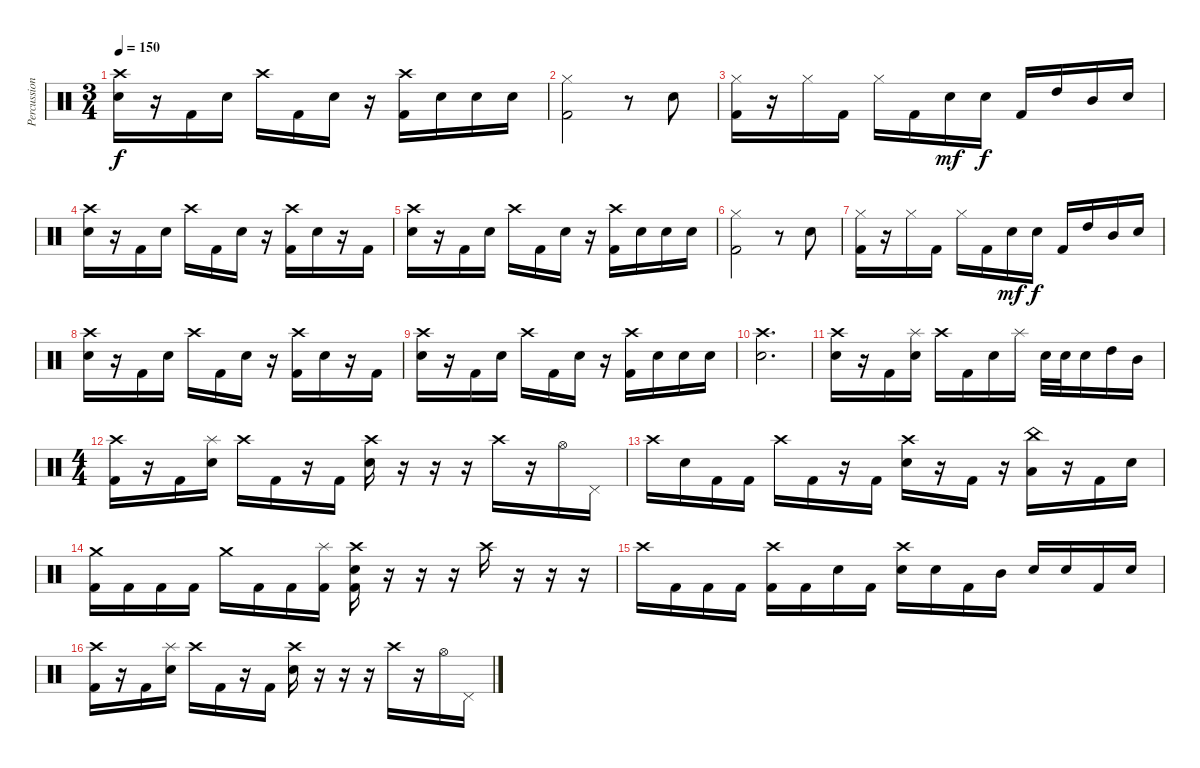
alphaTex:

\track ("Percussion" "Percussion") {instrument percussion}
\staff {score}
\articulation defaults
\ts (3 4)
\tempo 150
\clef neutral
\ks c
("Crash high (hit)" "Electric Snare (hit)").16{dy f} r.16 "Kick (hit) 2".16 "Electric Snare (hit)".16 "Crash high (hit)".16 "Kick (hit) 2".16 "Electric Snare (hit)".16 r.16 ("Crash high (hit)" "Kick (hit) 2").16 "Electric Snare (hit)".16 "Electric Snare (hit)".16 "Electric Snare (hit)".16 |
("Hi-Hat (closed)" "Kick (hit) 2").2 r.8 "Electric Snare (hit)".8 |
("Hi-Hat (closed)" "Kick (hit) 2").16 r.16 "Hi-Hat (closed)".16 "Kick (hit) 2".16 "Hi-Hat (closed)".16 "Kick (hit) 2".16 "Electric Snare (hit)".16{dy mf} "Electric Snare (hit)".16{dy f} "Kick (hit) 2".16 "High Tom (hit)".16 "Mid Tom (hit)".16 "Electric Snare (hit)".16 |
("Crash high (hit)" "Electric Snare (hit)").16 r.16 "Kick (hit) 2".16 "Electric Snare (hit)".16 "Crash high (hit)".16 "Kick (hit) 2".16 "Electric Snare (hit)".16 r.16 ("Crash high (hit)" "Kick (hit) 2").16 "Electric Snare (hit)".16 r.16 "Kick (hit) 2".16 |
("Crash high (hit)" "Electric Snare (hit)").16 r.16 "Kick (hit) 2".16 "Electric Snare (hit)".16 "Crash high (hit)".16 "Kick (hit) 2".16 "Electric Snare (hit)".16 r.16 ("Crash high (hit)" "Kick (hit) 2").16 "Electric Snare (hit)".16 "Electric Snare (hit)".16 "Electric Snare (hit)".16 |
("Hi-Hat (closed)" "Kick (hit) 2").2 r.8 "Electric Snare (hit)".8 |
("Hi-Hat (closed)" "Kick (hit) 2").16 r.16 "Hi-Hat (closed)".16 "Kick (hit) 2".16 "Hi-Hat (closed)".16 "Kick (hit) 2".16 "Electric Snare (hit)".16{dy mf} "Electric Snare (hit)".16{dy f} "Kick (hit) 2".16 "High Tom (hit)".16 "Mid Tom (hit)".16 "Electric Snare (hit)".16 |
("Crash high (hit)" "Electric Snare (hit)").16 r.16 "Kick (hit) 2".16 "Electric Snare (hit)".16 "Crash high (hit)".16 "Kick (hit) 2".16 "Electric Snare (hit)".16 r.16 ("Crash high (hit)" "Kick (hit) 2").16 "Electric Snare (hit)".16 r.16 "Kick (hit) 2".16 |
("Crash high (hit)" "Electric Snare (hit)").16 r.16 "Kick (hit) 2".16 "Electric Snare (hit)".16 "Crash high (hit)".16 "Kick (hit) 2".16 "Electric Snare (hit)".16 r.16 ("Crash high (hit)" "Kick (hit) 2").16 "Electric Snare (hit)".16 "Electric Snare (hit)".16 "Electric Snare (hit)".16 |
("Crash high (hit)" "Electric Snare (hit)").2{d} |
("Crash high (hit)" "Electric Snare (hit)").16 r.16 "Kick (hit) 2".16 ("Splash (hit)" "Electric Snare (hit)").16 "Crash high (hit)".16 "Kick (hit) 2".16 "Electric Snare (hit)".16 "Splash (hit)".16 "Electric Snare (hit)".32 "Electric Snare (hit)".32 "Electric Snare (hit)".16 "High Tom (hit)".16 "Mid Tom (hit)".16 |
\ts (4 4)
("Crash high (hit)" "Kick (hit) 2").16 r.16 "Kick (hit) 2".16 ("Splash (hit)" "Electric Snare (hit)").16 "Crash high (hit)".16 "Kick (hit) 2".16 r.16 "Kick (hit) 2".16 ("Crash high (hit)" "Electric Snare (hit)").16 r.16 r.16 r.16 "Crash high (hit)".16 r.16 "Hi-Hat (open)".16 "Pedal Hi-Hat (hit)".16 |
"Crash high (hit)".16 "Electric Snare (hit)".16 "Kick (hit) 2".16 "Kick (hit) 2".16 "Crash high (hit)".16 "Kick (hit) 2".16 r.16 "Kick (hit) 2".16 ("Crash high (hit)" "Electric Snare (hit)").16 r.16 "Kick (hit) 2".16 r.16 ("China (hit)" "Low Tom (hit)").16 r.16 "Kick (hit) 2".16 "Electric Snare (hit)".16 |
("Crash medium (hit)" "Kick (hit) 2").16 "Kick (hit) 2".16 "Kick (hit) 2".16 "Kick (hit) 2".16 "Crash medium (hit)".16 "Kick (hit) 2".16 "Kick (hit) 2".16 ("Splash (hit)" "Kick (hit) 2").16 ("Crash high (hit)" "Electric Snare (hit)" "Kick (hit) 2").16 r.16 r.16 r.16 "Crash high (hit)".16 r.16 r.16 r.16 |
"Crash high (hit)".16 "Kick (hit) 2".16 "Kick (hit) 2".16 "Kick (hit) 2".16 ("Crash high (hit)" "Kick (hit) 2").16 "Kick (hit) 2".16 "Electric Snare (hit)".16 "Kick (hit) 2".16 ("Crash high (hit)" "Electric Snare (hit)").16 "Electric Snare (hit)".16 "Kick (hit) 2".16 "Mid Tom (hit)".16 "Electric Snare (hit)".16 "Electric Snare (hit)".16 "Kick (hit) 2".16 "Electric Snare (hit)".16 |
("Crash high (hit)" "Kick (hit) 2").16 r.16 "Kick (hit) 2".16 ("Splash (hit)" "Electric Snare (hit)").16 "Crash high (hit)".16 "Kick (hit) 2".16 r.16 "Kick (hit) 2".16 ("Crash high (hit)" "Electric Snare (hit)").16 r.16 r.16 r.16 "Crash high (hit)".16 r.16 "Hi-Hat (open)".16 "Pedal Hi-Hat (hit)".16
